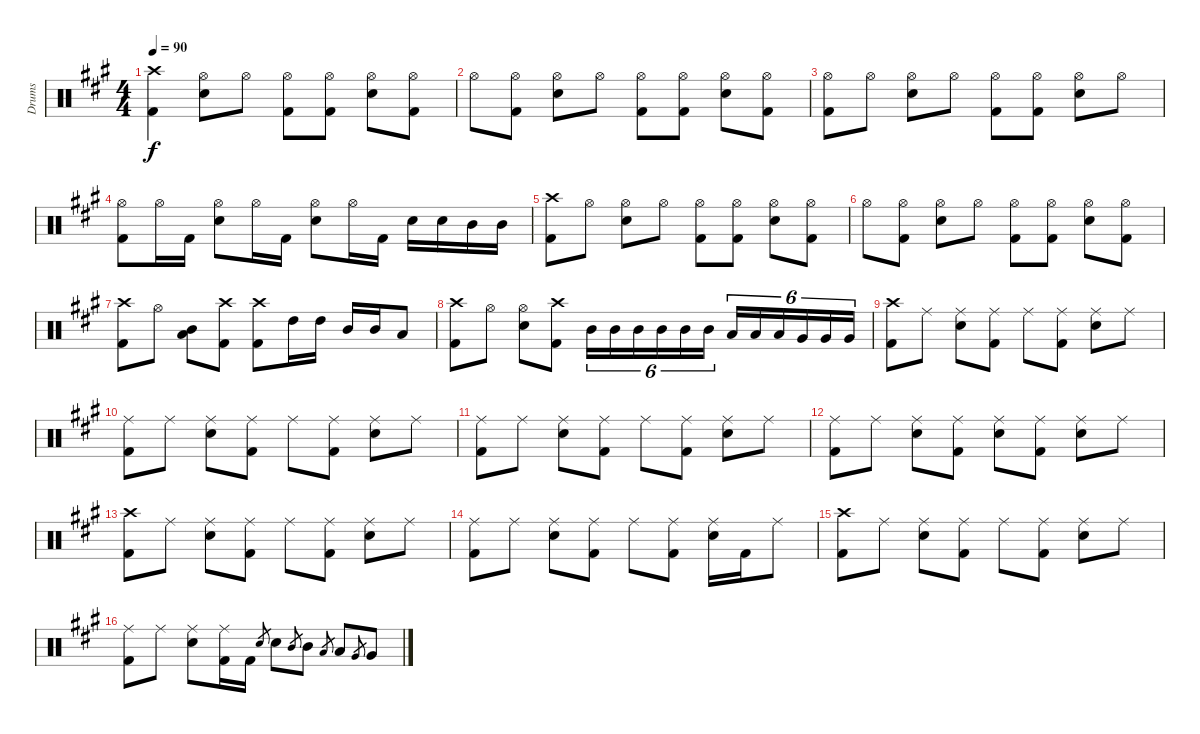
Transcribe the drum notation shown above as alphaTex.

\track ("Drums" "Drums") {instrument percussion}
\staff {score}
\articulation defaults
\ts (4 4)
\tempo 90
\clef neutral
\ks a
("Crash high (hit)" "Kick (hit) 2").4{dy f} ("Hi-Hat (open)" "Electric Snare (hit)").8 "Hi-Hat (open)".8 ("Hi-Hat (open)" "Kick (hit) 2").8 ("Hi-Hat (open)" "Kick (hit) 2").8 ("Hi-Hat (open)" "Electric Snare (hit)").8 ("Hi-Hat (open)" "Kick (hit) 2").8 |
"Hi-Hat (open)".8 ("Hi-Hat (open)" "Kick (hit) 2").8 ("Hi-Hat (open)" "Electric Snare (hit)").8 "Hi-Hat (open)".8 ("Hi-Hat (open)" "Kick (hit) 2").8 ("Hi-Hat (open)" "Kick (hit) 2").8 ("Hi-Hat (open)" "Electric Snare (hit)").8 ("Hi-Hat (open)" "Kick (hit) 2").8 |
("Hi-Hat (open)" "Kick (hit) 2").8 "Hi-Hat (open)".8 ("Hi-Hat (open)" "Electric Snare (hit)").8 "Hi-Hat (open)".8 ("Hi-Hat (open)" "Kick (hit) 2").8 ("Hi-Hat (open)" "Kick (hit) 2").8 ("Hi-Hat (open)" "Electric Snare (hit)").8 "Hi-Hat (open)".8 |
("Hi-Hat (open)" "Kick (hit) 2").8 "Hi-Hat (open)".16 "Kick (hit) 2".16 ("Hi-Hat (open)" "Electric Snare (hit)").8 "Hi-Hat (open)".16 "Kick (hit) 2".16 ("Hi-Hat (open)" "Electric Snare (hit)").8 "Hi-Hat (open)".16 "Kick (hit) 2".16 "Electric Snare (hit)".16 "Electric Snare (hit)".16 "Mid Tom (hit)".16 "Mid Tom (hit)".16 |
("Crash high (hit)" "Kick (hit) 2").8 "Hi-Hat (open)".8 ("Hi-Hat (open)" "Electric Snare (hit)").8 "Hi-Hat (open)".8 ("Hi-Hat (open)" "Kick (hit) 2").8 ("Hi-Hat (open)" "Kick (hit) 2").8 ("Hi-Hat (open)" "Electric Snare (hit)").8 ("Hi-Hat (open)" "Kick (hit) 2").8 |
"Hi-Hat (open)".8 ("Hi-Hat (open)" "Kick (hit) 2").8 ("Hi-Hat (open)" "Electric Snare (hit)").8 "Hi-Hat (open)".8 ("Hi-Hat (open)" "Kick (hit) 2").8 ("Hi-Hat (open)" "Kick (hit) 2").8 ("Hi-Hat (open)" "Electric Snare (hit)").8 ("Hi-Hat (open)" "Kick (hit) 2").8 |
("Crash high (hit)" "Kick (hit) 2").8 "Hi-Hat (open)".8 ("Mid Tom (hit)" "Low Tom (hit)").8 ("Crash high (hit)" "Kick (hit) 2").8 ("Crash high (hit)" "Kick (hit) 2").8 "High Tom (hit)".16 "High Tom (hit)".16 "Mid Tom (hit)".16 "Mid Tom (hit)".16 "Low Tom (hit)".8 |
("Crash high (hit)" "Kick (hit) 2").8 "Hi-Hat (open)".8 ("Hi-Hat (open)" "Electric Snare (hit)").8 ("Crash high (hit)" "Kick (hit) 2").8 "Mid Tom (hit)".16{tu (6 4)} "Mid Tom (hit)".16{tu (6 4)} "Mid Tom (hit)".16{tu (6 4)} "Mid Tom (hit)".16{tu (6 4)} "Mid Tom (hit)".16{tu (6 4)} "Mid Tom (hit)".16{tu (6 4)} "Low Tom (hit)".16{tu (6 4)} "Low Tom (hit)".16{tu (6 4)} "Low Tom (hit)".16{tu (6 4)} "Very Low Tom (hit)".16{tu (6 4)} "Very Low Tom (hit)".16{tu (6 4)} "Very Low Tom (hit)".16{tu (6 4)} |
("Crash high (hit)" "Kick (hit) 2").8 "Ride (middle)".8 ("Ride (middle)" "Electric Snare (hit)").8 ("Ride (middle)" "Kick (hit) 2").8 "Ride (middle)".8 ("Ride (middle)" "Kick (hit) 2").8 ("Ride (middle)" "Electric Snare (hit)").8 "Ride (middle)".8 |
("Ride (middle)" "Kick (hit) 2").8 "Ride (middle)".8 ("Ride (middle)" "Electric Snare (hit)").8 ("Ride (middle)" "Kick (hit) 2").8 "Ride (middle)".8 ("Ride (middle)" "Kick (hit) 2").8 ("Ride (middle)" "Electric Snare (hit)").8 "Ride (middle)".8 |
("Ride (middle)" "Kick (hit) 2").8 "Ride (middle)".8 ("Ride (middle)" "Electric Snare (hit)").8 ("Ride (middle)" "Kick (hit) 2").8 "Ride (middle)".8 ("Ride (middle)" "Kick (hit) 2").8 ("Ride (middle)" "Electric Snare (hit)").8 "Ride (middle)".8 |
("Ride (middle)" "Kick (hit) 2").8 "Ride (middle)".8 ("Ride (middle)" "Electric Snare (hit)").8 ("Ride (middle)" "Kick (hit) 2").8 ("Ride (middle)" "Electric Snare (hit)").8 ("Ride (middle)" "Kick (hit) 2").8 ("Ride (middle)" "Electric Snare (hit)").8 "Ride (middle)".8 |
("Crash high (hit)" "Kick (hit) 2").8 "Ride (middle)".8 ("Ride (middle)" "Electric Snare (hit)").8 ("Ride (middle)" "Kick (hit) 2").8 "Ride (middle)".8 ("Ride (middle)" "Kick (hit) 2").8 ("Ride (middle)" "Electric Snare (hit)").8 "Ride (middle)".8 |
("Ride (middle)" "Kick (hit) 2").8 "Ride (middle)".8 ("Ride (middle)" "Electric Snare (hit)").8 ("Ride (middle)" "Kick (hit) 2").8 "Ride (middle)".8 ("Ride (middle)" "Kick (hit) 2").8 ("Ride (middle)" "Electric Snare (hit)").16 "Kick (hit) 2".16 "Ride (middle)".8 |
("Crash high (hit)" "Kick (hit) 2").8 "Ride (middle)".8 ("Ride (middle)" "Electric Snare (hit)").8 ("Ride (middle)" "Kick (hit) 2").8 "Ride (middle)".8 ("Ride (middle)" "Kick (hit) 2").8 ("Ride (middle)" "Electric Snare (hit)").8 "Ride (middle)".8 |
("Ride (middle)" "Kick (hit) 2").8 "Ride (middle)".8 ("Ride (middle)" "Electric Snare (hit)").8 ("Ride (middle)" "Kick (hit) 2").16 "Kick (hit) 2".16 "Electric Snare (hit)".8{gr} "Electric Snare (hit)".8 "Mid Tom (hit)".8{gr} "Mid Tom (hit)".8 "Low Tom (hit)".8{gr} "Low Tom (hit)".8 "Very Low Tom (hit)".8{gr} "Very Low Tom (hit)".8
